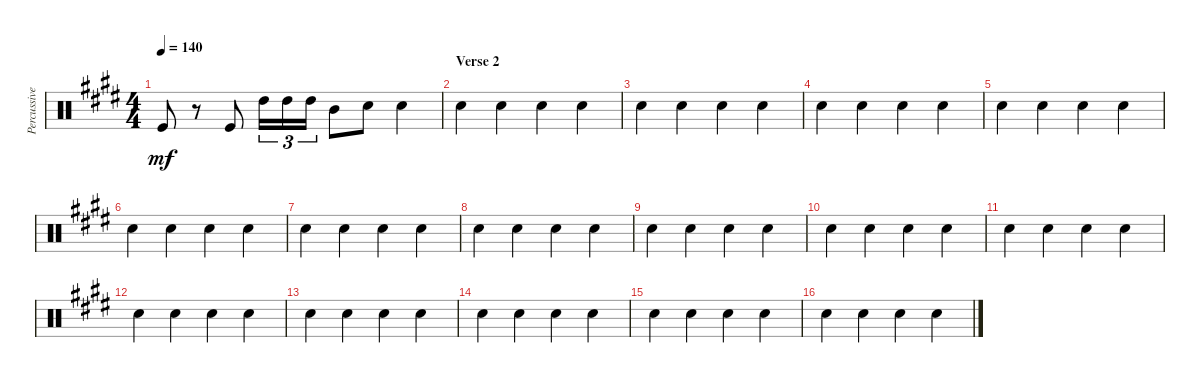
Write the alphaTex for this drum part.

\track ("Percussives" "Percussive") {instrument percussion}
\staff {score}
\articulation defaults
\ts (4 4)
\tempo 140
\clef neutral
\ks e "Kick (hit)".8{dy mf}
r.8 "Kick (hit)".8 "High Tom (hit)".16{tu (3 2)} "High Tom (hit)".16{tu (3 2)} "High Tom (hit)".16{tu (3 2)} "Mid Tom (hit)".8 "Snare (hit) 2".8 "Snare (hit) 2".4 |
\section ("" "Verse 2")
"Snare (hit) 2".4 "Snare (hit) 2".4 "Snare (hit) 2".4 "Snare (hit) 2".4 |
"Snare (hit) 2".4 "Snare (hit) 2".4 "Snare (hit) 2".4 "Snare (hit) 2".4 |
"Snare (hit) 2".4 "Snare (hit) 2".4 "Snare (hit) 2".4 "Snare (hit) 2".4 |
"Snare (hit) 2".4 "Snare (hit) 2".4 "Snare (hit) 2".4 "Snare (hit) 2".4 |
"Snare (hit) 2".4 "Snare (hit) 2".4 "Snare (hit) 2".4 "Snare (hit) 2".4 |
"Snare (hit) 2".4 "Snare (hit) 2".4 "Snare (hit) 2".4 "Snare (hit) 2".4 |
"Snare (hit) 2".4 "Snare (hit) 2".4 "Snare (hit) 2".4 "Snare (hit) 2".4 |
"Snare (hit) 2".4 "Snare (hit) 2".4 "Snare (hit) 2".4 "Snare (hit) 2".4 |
"Snare (hit) 2".4 "Snare (hit) 2".4 "Snare (hit) 2".4 "Snare (hit) 2".4 |
"Snare (hit) 2".4 "Snare (hit) 2".4 "Snare (hit) 2".4 "Snare (hit) 2".4 |
"Snare (hit) 2".4 "Snare (hit) 2".4 "Snare (hit) 2".4 "Snare (hit) 2".4 |
"Snare (hit) 2".4 "Snare (hit) 2".4 "Snare (hit) 2".4 "Snare (hit) 2".4 |
"Snare (hit) 2".4 "Snare (hit) 2".4 "Snare (hit) 2".4 "Snare (hit) 2".4 |
"Snare (hit) 2".4 "Snare (hit) 2".4 "Snare (hit) 2".4 "Snare (hit) 2".4 |
"Snare (hit) 2".4 "Snare (hit) 2".4 "Snare (hit) 2".4 "Snare (hit) 2".4
